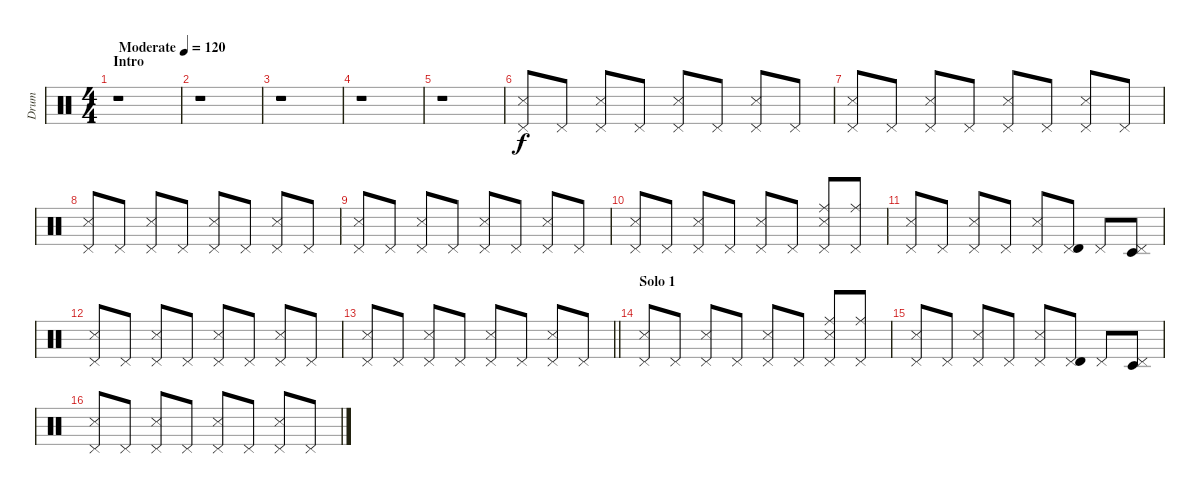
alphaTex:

\track ("Drum" "Drum") {instrument percussion}
\staff {score}
\articulation defaults
\ts (4 4)
\section ("" "Intro")
\tempo (120 "Moderate")
\clef neutral
\ks c
r.1{dy f} |
r.1 |
r.1 |
r.1 |
r.1 |
("Pedal Hi-Hat (hit)" "Metronome (hit)").8{volume 10} "Pedal Hi-Hat (hit)".8 ("Pedal Hi-Hat (hit)" "Metronome (hit)").8 "Pedal Hi-Hat (hit)".8 ("Pedal Hi-Hat (hit)" "Metronome (hit)").8 "Pedal Hi-Hat (hit)".8 ("Pedal Hi-Hat (hit)" "Metronome (hit)").8 "Pedal Hi-Hat (hit)".8 |
("Pedal Hi-Hat (hit)" "Metronome (hit)").8 "Pedal Hi-Hat (hit)".8 ("Pedal Hi-Hat (hit)" "Metronome (hit)").8 "Pedal Hi-Hat (hit)".8 ("Pedal Hi-Hat (hit)" "Metronome (hit)").8 "Pedal Hi-Hat (hit)".8 ("Pedal Hi-Hat (hit)" "Metronome (hit)").8 "Pedal Hi-Hat (hit)".8 |
("Pedal Hi-Hat (hit)" "Metronome (hit)").8 "Pedal Hi-Hat (hit)".8 ("Pedal Hi-Hat (hit)" "Metronome (hit)").8 "Pedal Hi-Hat (hit)".8 ("Pedal Hi-Hat (hit)" "Metronome (hit)").8 "Pedal Hi-Hat (hit)".8 ("Pedal Hi-Hat (hit)" "Metronome (hit)").8 "Pedal Hi-Hat (hit)".8 |
("Pedal Hi-Hat (hit)" "Metronome (hit)").8 "Pedal Hi-Hat (hit)".8 ("Pedal Hi-Hat (hit)" "Metronome (hit)").8 "Pedal Hi-Hat (hit)".8 ("Pedal Hi-Hat (hit)" "Metronome (hit)").8 "Pedal Hi-Hat (hit)".8 ("Pedal Hi-Hat (hit)" "Metronome (hit)").8 "Pedal Hi-Hat (hit)".8 |
("Pedal Hi-Hat (hit)" "Metronome (hit)").8 "Pedal Hi-Hat (hit)".8 ("Pedal Hi-Hat (hit)" "Metronome (hit)").8 "Pedal Hi-Hat (hit)".8 ("Pedal Hi-Hat (hit)" "Metronome (hit)").8 "Pedal Hi-Hat (hit)".8 ("Pedal Hi-Hat (hit)" "Metronome (hit)" "Ride (middle)").8 ("Pedal Hi-Hat (hit)" "Ride (middle)").8 |
("Pedal Hi-Hat (hit)" "Metronome (hit)").8 "Pedal Hi-Hat (hit)".8 ("Pedal Hi-Hat (hit)" "Metronome (hit)").8 "Pedal Hi-Hat (hit)".8 ("Pedal Hi-Hat (hit)" "Metronome (hit)").8 ("Pedal Hi-Hat (hit)" "Timbale high (hit)").8 "Pedal Hi-Hat (hit)".8 ("Pedal Hi-Hat (hit)" "Timbale low (hit)").8 |
("Pedal Hi-Hat (hit)" "Metronome (hit)").8 "Pedal Hi-Hat (hit)".8 ("Pedal Hi-Hat (hit)" "Metronome (hit)").8 "Pedal Hi-Hat (hit)".8 ("Pedal Hi-Hat (hit)" "Metronome (hit)").8 "Pedal Hi-Hat (hit)".8 ("Pedal Hi-Hat (hit)" "Metronome (hit)").8 "Pedal Hi-Hat (hit)".8 |
\barLineRight lightlight
("Pedal Hi-Hat (hit)" "Metronome (hit)").8 "Pedal Hi-Hat (hit)".8 ("Pedal Hi-Hat (hit)" "Metronome (hit)").8 "Pedal Hi-Hat (hit)".8 ("Pedal Hi-Hat (hit)" "Metronome (hit)").8 "Pedal Hi-Hat (hit)".8 ("Pedal Hi-Hat (hit)" "Metronome (hit)").8 "Pedal Hi-Hat (hit)".8 |
\section ("" "Solo 1")
("Pedal Hi-Hat (hit)" "Metronome (hit)").8 "Pedal Hi-Hat (hit)".8 ("Pedal Hi-Hat (hit)" "Metronome (hit)").8 "Pedal Hi-Hat (hit)".8 ("Pedal Hi-Hat (hit)" "Metronome (hit)").8 "Pedal Hi-Hat (hit)".8 ("Pedal Hi-Hat (hit)" "Metronome (hit)" "Ride (middle)").8 ("Pedal Hi-Hat (hit)" "Ride (middle)").8 |
("Pedal Hi-Hat (hit)" "Metronome (hit)").8 "Pedal Hi-Hat (hit)".8 ("Pedal Hi-Hat (hit)" "Metronome (hit)").8 "Pedal Hi-Hat (hit)".8 ("Pedal Hi-Hat (hit)" "Metronome (hit)").8 ("Pedal Hi-Hat (hit)" "Timbale high (hit)").8 "Pedal Hi-Hat (hit)".8 ("Pedal Hi-Hat (hit)" "Timbale low (hit)").8 |
("Pedal Hi-Hat (hit)" "Metronome (hit)").8 "Pedal Hi-Hat (hit)".8 ("Pedal Hi-Hat (hit)" "Metronome (hit)").8 "Pedal Hi-Hat (hit)".8 ("Pedal Hi-Hat (hit)" "Metronome (hit)").8 "Pedal Hi-Hat (hit)".8 ("Pedal Hi-Hat (hit)" "Metronome (hit)").8 "Pedal Hi-Hat (hit)".8
